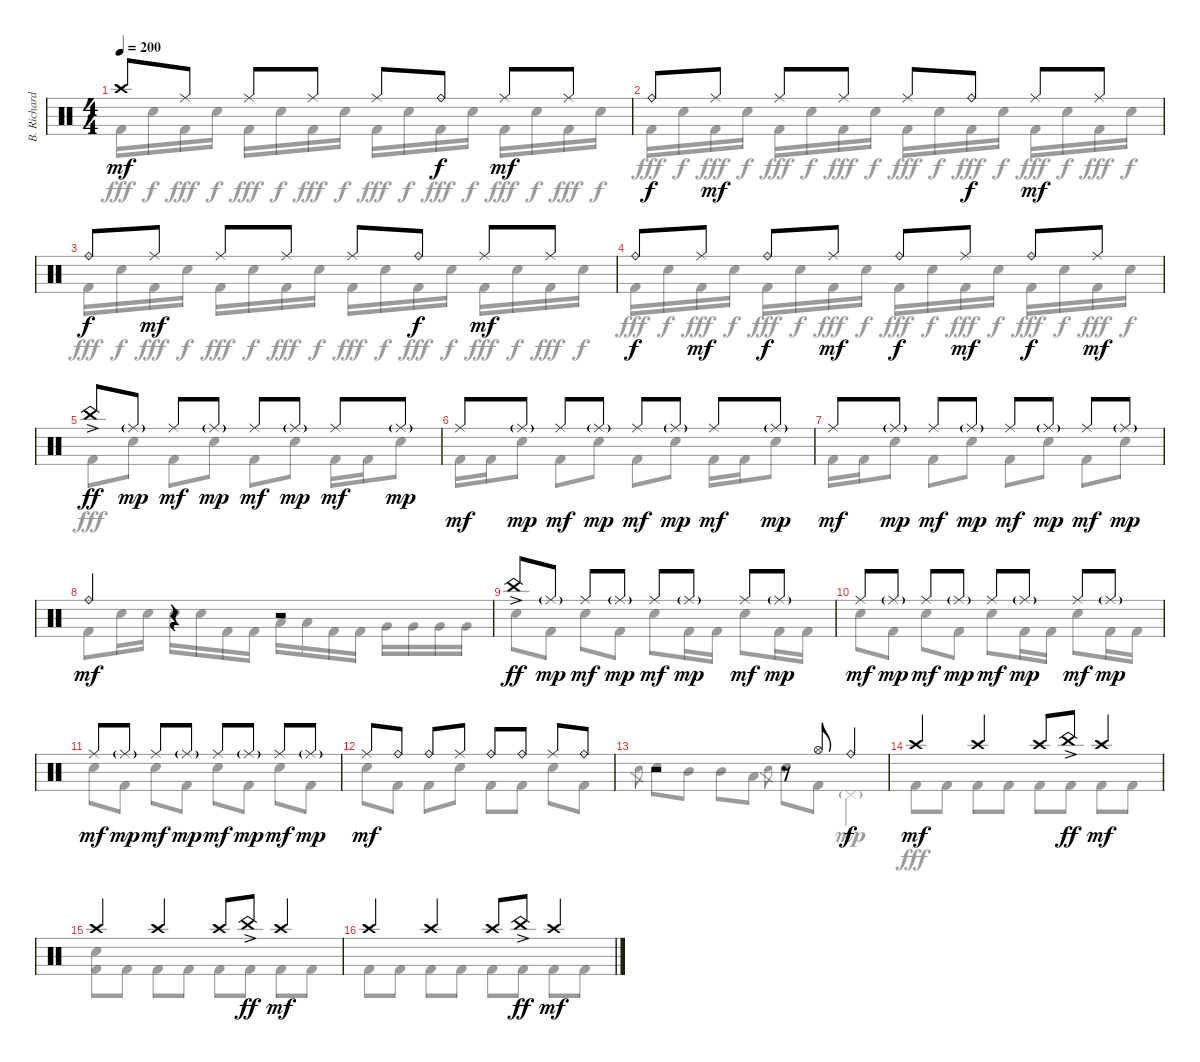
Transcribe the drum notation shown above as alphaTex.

\track ("B. Richardson Drums" "B. Richard") {instrument percussion}
\staff {score}
\articulation defaults
\voice
\ts (4 4)
\tempo 200
\clef neutral
\ks c "Crash high (hit)".8{dy mf} "Ride (middle)".8 "Ride (middle)".8 "Ride (middle)".8 "Ride (middle)".8 "Ride (bell)".8{dy f} "Ride (middle)".8{dy mf} "Ride (middle)".8
|
"Ride (bell)".8{dy f} "Ride (middle)".8{dy mf} "Ride (middle)".8 "Ride (middle)".8 "Ride (middle)".8 "Ride (bell)".8{dy f} "Ride (middle)".8{dy mf} "Ride (middle)".8 |
"Ride (bell)".8{dy f} "Ride (middle)".8{dy mf} "Ride (middle)".8 "Ride (middle)".8 "Ride (middle)".8 "Ride (bell)".8{dy f} "Ride (middle)".8{dy mf} "Ride (middle)".8 |
"Ride (bell)".8{dy f} "Ride (middle)".8{dy mf} "Ride (bell)".8{dy f} "Ride (middle)".8{dy mf} "Ride (bell)".8{dy f} "Ride (middle)".8{dy mf} "Ride (bell)".8{dy f} "Ride (middle)".8{dy mf} |
"China (hit)"{ac}.8{dy ff} "Ride (middle)"{g}.8{dy mp} "Ride (middle)".8{dy mf} "Ride (middle)"{g}.8{dy mp} "Ride (middle)".8{dy mf} "Ride (middle)"{g}.8{dy mp} "Ride (middle)".8{dy mf} "Ride (middle)"{g}.8{dy mp} |
"Ride (middle)".8{dy mf} "Ride (middle)"{g}.8{dy mp} "Ride (middle)".8{dy mf} "Ride (middle)"{g}.8{dy mp} "Ride (middle)".8{dy mf} "Ride (middle)"{g}.8{dy mp} "Ride (middle)".8{dy mf} "Ride (middle)"{g}.8{dy mp} |
"Ride (middle)".8{dy mf} "Ride (middle)"{g}.8{dy mp} "Ride (middle)".8{dy mf} "Ride (middle)"{g}.8{dy mp} "Ride (middle)".8{dy mf} "Ride (middle)"{g}.8{dy mp} "Ride (middle)".8{dy mf} "Ride (middle)"{g}.8{dy mp} |
"Ride (bell)".4{dy mf} r.4 r.2 |
"China (hit)"{ac}.8{dy ff} "Ride (middle)"{g}.8{dy mp} "Ride (middle)".8{dy mf} "Ride (middle)"{g}.8{dy mp} "Ride (middle)".8{dy mf} "Ride (middle)"{g}.8{dy mp} "Ride (middle)".8{dy mf} "Ride (middle)"{g}.8{dy mp} |
"Ride (middle)".8{dy mf} "Ride (middle)"{g}.8{dy mp} "Ride (middle)".8{dy mf} "Ride (middle)"{g}.8{dy mp} "Ride (middle)".8{dy mf} "Ride (middle)"{g}.8{dy mp} "Ride (middle)".8{dy mf} "Ride (middle)"{g}.8{dy mp} |
"Ride (middle)".8{dy mf} "Ride (middle)"{g}.8{dy mp} "Ride (middle)".8{dy mf} "Ride (middle)"{g}.8{dy mp} "Ride (middle)".8{dy mf} "Ride (middle)"{g}.8{dy mp} "Ride (middle)".8{dy mf} "Ride (middle)"{g}.8{dy mp} |
"Ride (middle)".8{dy mf} "Ride (bell)".8 "Ride (bell)".8 "Ride (middle)".8 "Ride (bell)".8 "Ride (bell)".8 "Ride (middle)".8 "Ride (bell)".8 |
r.2 r.8 "Hi-Hat (open)".8 "Ride (bell)".4{dy f} |
"Crash high (hit)".4{dy mf} "Crash high (hit)".4 "Crash high (hit)".8 "China (hit)"{ac}.8{dy ff} "Crash high (hit)".4{dy mf} |
"Crash high (hit)".4 "Crash high (hit)".4 "Crash high (hit)".8 "China (hit)"{ac}.8{dy ff} "Crash high (hit)".4{dy mf} |
"Crash high (hit)".4 "Crash high (hit)".4 "Crash high (hit)".8 "China (hit)"{ac}.8{dy ff} "Crash high (hit)".4{dy mf}
\voice
\clef neutral
\ottava regular
\simile none
\ks c "Kick (hit) 2".16{dy fff} "Electric Snare (hit)".16{dy f} "Kick (hit) 2".16{dy fff} "Electric Snare (hit)".16{dy f} "Kick (hit) 2".16{dy fff} "Electric Snare (hit)".16{dy f} "Kick (hit) 2".16{dy fff} "Electric Snare (hit)".16{dy f} "Kick (hit) 2".16{dy fff} "Electric Snare (hit)".16{dy f} "Kick (hit) 2".16{dy fff} "Electric Snare (hit)".16{dy f} "Kick (hit) 2".16{dy fff} "Electric Snare (hit)".16{dy f} "Kick (hit) 2".16{dy fff} "Electric Snare (hit)".16{dy f}
|
"Kick (hit) 2".16{dy fff} "Electric Snare (hit)".16{dy f} "Kick (hit) 2".16{dy fff} "Electric Snare (hit)".16{dy f} "Kick (hit) 2".16{dy fff} "Electric Snare (hit)".16{dy f} "Kick (hit) 2".16{dy fff} "Electric Snare (hit)".16{dy f} "Kick (hit) 2".16{dy fff} "Electric Snare (hit)".16{dy f} "Kick (hit) 2".16{dy fff} "Electric Snare (hit)".16{dy f} "Kick (hit) 2".16{dy fff} "Electric Snare (hit)".16{dy f} "Kick (hit) 2".16{dy fff} "Electric Snare (hit)".16{dy f} |
"Kick (hit) 2".16{dy fff} "Electric Snare (hit)".16{dy f} "Kick (hit) 2".16{dy fff} "Electric Snare (hit)".16{dy f} "Kick (hit) 2".16{dy fff} "Electric Snare (hit)".16{dy f} "Kick (hit) 2".16{dy fff} "Electric Snare (hit)".16{dy f} "Kick (hit) 2".16{dy fff} "Electric Snare (hit)".16{dy f} "Kick (hit) 2".16{dy fff} "Electric Snare (hit)".16{dy f} "Kick (hit) 2".16{dy fff} "Electric Snare (hit)".16{dy f} "Kick (hit) 2".16{dy fff} "Electric Snare (hit)".16{dy f} |
"Kick (hit) 2".16{dy fff} "Electric Snare (hit)".16{dy f} "Kick (hit) 2".16{dy fff} "Electric Snare (hit)".16{dy f} "Kick (hit) 2".16{dy fff} "Electric Snare (hit)".16{dy f} "Kick (hit) 2".16{dy fff} "Electric Snare (hit)".16{dy f} "Kick (hit) 2".16{dy fff} "Electric Snare (hit)".16{dy f} "Kick (hit) 2".16{dy fff} "Electric Snare (hit)".16{dy f} "Kick (hit) 2".16{dy fff} "Electric Snare (hit)".16{dy f} "Kick (hit) 2".16{dy fff} "Electric Snare (hit)".16{dy f} |
"Kick (hit) 2".8{dy fff} "Electric Snare (hit)".8 "Kick (hit) 2".8 "Electric Snare (hit)".8 "Kick (hit) 2".8 "Electric Snare (hit)".8 "Kick (hit) 2".16 "Kick (hit) 2".16 "Electric Snare (hit)".8 |
"Kick (hit) 2".16 "Kick (hit) 2".16 "Electric Snare (hit)".8 "Kick (hit) 2".8 "Electric Snare (hit)".8 "Kick (hit) 2".8 "Electric Snare (hit)".8 "Kick (hit) 2".16 "Kick (hit) 2".16 "Electric Snare (hit)".8 |
"Kick (hit) 2".16 "Kick (hit) 2".16 "Electric Snare (hit)".8 "Kick (hit) 2".8 "Electric Snare (hit)".8 "Kick (hit) 2".8 "Electric Snare (hit)".8 "Kick (hit) 2".8 "Electric Snare (hit)".8 |
"Kick (hit) 2".8 "Electric Snare (hit)".16 "Electric Snare (hit)".16 "Electric Snare (hit)".16 "Electric Snare (hit)".16 "Kick (hit) 2".16 "Kick (hit) 2".16 "Low Tom (hit)".16 "Low Tom (hit)".16 "Kick (hit) 2".16 "Kick (hit) 2".16 "Very Low Tom (hit)".16 "Very Low Tom (hit)".16 "Very Low Tom (hit)".16 "Very Low Tom (hit)".16 |
"Electric Snare (hit)".8 "Kick (hit) 2".8 "Electric Snare (hit)".8 "Kick (hit) 2".8 "Electric Snare (hit)".8 "Kick (hit) 2".16 "Kick (hit) 2".16 "Electric Snare (hit)".8 "Kick (hit) 2".16 "Kick (hit) 2".16 |
"Electric Snare (hit)".8 "Kick (hit) 2".8 "Electric Snare (hit)".8 "Kick (hit) 2".8 "Electric Snare (hit)".8 "Kick (hit) 2".16 "Kick (hit) 2".16 "Electric Snare (hit)".8 "Kick (hit) 2".16 "Kick (hit) 2".16 |
"Electric Snare (hit)".8 "Kick (hit) 2".8 "Electric Snare (hit)".8 "Kick (hit) 2".8 "Electric Snare (hit)".8 "Kick (hit) 2".8 "Electric Snare (hit)".8 "Kick (hit) 2".8 |
"Electric Snare (hit)".8 "Kick (hit) 2".8 "Kick (hit) 2".8 "Electric Snare (hit)".8 "Kick (hit) 2".8 "Kick (hit) 2".8 "Electric Snare (hit)".8 "Kick (hit) 2".8 |
"Electric Snare (hit)".8{gr} "Electric Snare (hit)".8 "Mid Tom (hit)".8 "Mid Tom (hit)".8 "Low Tom (hit)".8 "Electric Snare (hit)".8{gr} "Electric Snare (hit)".8 "Kick (hit) 2".8 "Pedal Hi-Hat (hit)"{g}.4{dy mp} |
"Kick (hit) 2".8{dy fff} "Kick (hit) 2".8 "Kick (hit) 2".8 "Kick (hit) 2".8 "Kick (hit) 2".8 "Kick (hit) 2".8 "Kick (hit) 2".8 "Kick (hit) 2".8 |
("Electric Snare (hit)" "Kick (hit) 2").8 "Kick (hit) 2".8 "Kick (hit) 2".8 "Kick (hit) 2".8 "Kick (hit) 2".8 "Kick (hit) 2".8 "Kick (hit) 2".8 "Kick (hit) 2".8 |
"Kick (hit) 2".8 "Kick (hit) 2".8 "Kick (hit) 2".8 "Kick (hit) 2".8 "Kick (hit) 2".8 "Kick (hit) 2".8 "Kick (hit) 2".8 "Kick (hit) 2".8
